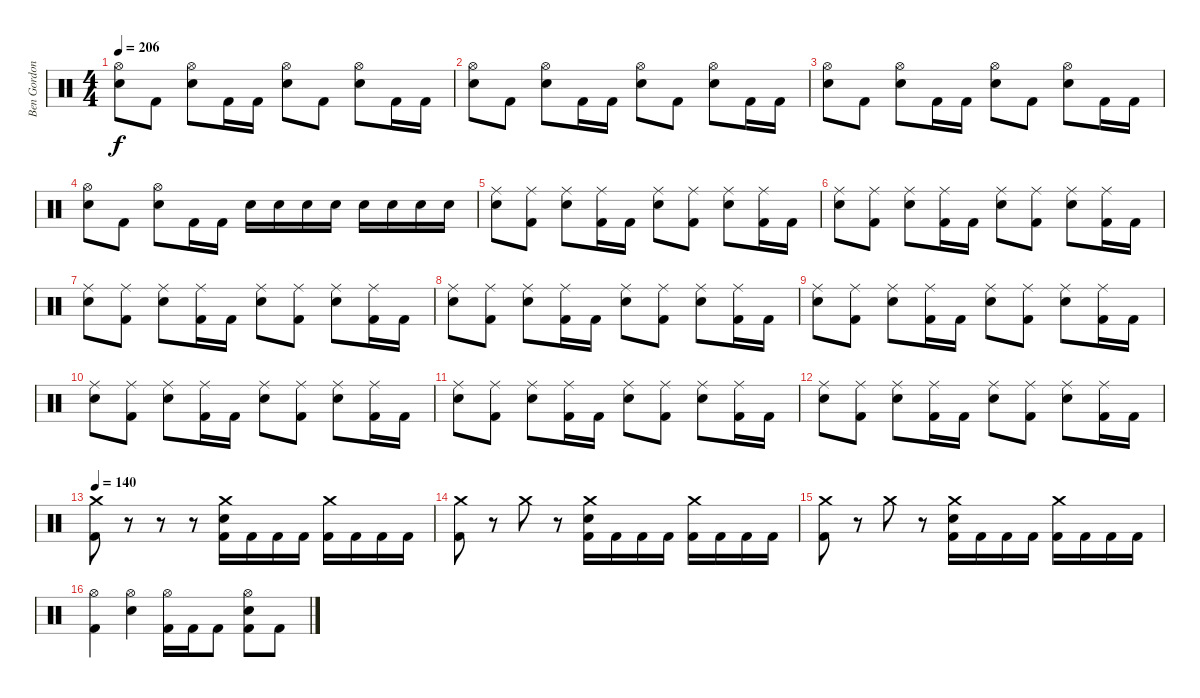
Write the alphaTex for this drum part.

\track ("Ben Gordon" "Ben Gordon") {instrument percussion}
\staff {score}
\articulation defaults
\ts (4 4)
\tempo 206
\clef neutral
\ks c
("Hi-Hat (open)" "Electric Snare (hit)").8{dy f} "Kick (hit) 2".8 ("Hi-Hat (open)" "Electric Snare (hit)").8 "Kick (hit) 2".16 "Kick (hit) 2".16 ("Hi-Hat (open)" "Electric Snare (hit)").8 "Kick (hit) 2".8 ("Hi-Hat (open)" "Electric Snare (hit)").8 "Kick (hit) 2".16 "Kick (hit) 2".16 |
("Hi-Hat (open)" "Electric Snare (hit)").8 "Kick (hit) 2".8 ("Hi-Hat (open)" "Electric Snare (hit)").8 "Kick (hit) 2".16 "Kick (hit) 2".16 ("Hi-Hat (open)" "Electric Snare (hit)").8 "Kick (hit) 2".8 ("Hi-Hat (open)" "Electric Snare (hit)").8 "Kick (hit) 2".16 "Kick (hit) 2".16 |
("Hi-Hat (open)" "Electric Snare (hit)").8 "Kick (hit) 2".8 ("Hi-Hat (open)" "Electric Snare (hit)").8 "Kick (hit) 2".16 "Kick (hit) 2".16 ("Hi-Hat (open)" "Electric Snare (hit)").8 "Kick (hit) 2".8 ("Hi-Hat (open)" "Electric Snare (hit)").8 "Kick (hit) 2".16 "Kick (hit) 2".16 |
("Hi-Hat (open)" "Electric Snare (hit)").8 "Kick (hit) 2".8 ("Hi-Hat (open)" "Electric Snare (hit)").8 "Kick (hit) 2".16 "Kick (hit) 2".16 "Electric Snare (hit)".16 "Electric Snare (hit)".16 "Electric Snare (hit)".16 "Electric Snare (hit)".16 "Electric Snare (hit)".16 "Electric Snare (hit)".16 "Electric Snare (hit)".16 "Electric Snare (hit)".16 |
("Ride (middle)" "Electric Snare (hit)").8 ("Ride (middle)" "Kick (hit) 2").8 ("Ride (middle)" "Electric Snare (hit)").8 ("Ride (middle)" "Kick (hit) 2").16 "Kick (hit) 2".16 ("Ride (middle)" "Electric Snare (hit)").8 ("Ride (middle)" "Kick (hit) 2").8 ("Ride (middle)" "Electric Snare (hit)").8 ("Ride (middle)" "Kick (hit) 2").16 "Kick (hit) 2".16 |
("Ride (middle)" "Electric Snare (hit)").8 ("Ride (middle)" "Kick (hit) 2").8 ("Ride (middle)" "Electric Snare (hit)").8 ("Ride (middle)" "Kick (hit) 2").16 "Kick (hit) 2".16 ("Ride (middle)" "Electric Snare (hit)").8 ("Ride (middle)" "Kick (hit) 2").8 ("Ride (middle)" "Electric Snare (hit)").8 ("Ride (middle)" "Kick (hit) 2").16 "Kick (hit) 2".16 |
("Ride (middle)" "Electric Snare (hit)").8 ("Ride (middle)" "Kick (hit) 2").8 ("Ride (middle)" "Electric Snare (hit)").8 ("Ride (middle)" "Kick (hit) 2").16 "Kick (hit) 2".16 ("Ride (middle)" "Electric Snare (hit)").8 ("Ride (middle)" "Kick (hit) 2").8 ("Ride (middle)" "Electric Snare (hit)").8 ("Ride (middle)" "Kick (hit) 2").16 "Kick (hit) 2".16 |
("Ride (middle)" "Electric Snare (hit)").8 ("Ride (middle)" "Kick (hit) 2").8 ("Ride (middle)" "Electric Snare (hit)").8 ("Ride (middle)" "Kick (hit) 2").16 "Kick (hit) 2".16 ("Ride (middle)" "Electric Snare (hit)").8 ("Ride (middle)" "Kick (hit) 2").8 ("Ride (middle)" "Electric Snare (hit)").8 ("Ride (middle)" "Kick (hit) 2").16 "Kick (hit) 2".16 |
("Ride (middle)" "Electric Snare (hit)").8 ("Ride (middle)" "Kick (hit) 2").8 ("Ride (middle)" "Electric Snare (hit)").8 ("Ride (middle)" "Kick (hit) 2").16 "Kick (hit) 2".16 ("Ride (middle)" "Electric Snare (hit)").8 ("Ride (middle)" "Kick (hit) 2").8 ("Ride (middle)" "Electric Snare (hit)").8 ("Ride (middle)" "Kick (hit) 2").16 "Kick (hit) 2".16 |
("Ride (middle)" "Electric Snare (hit)").8 ("Ride (middle)" "Kick (hit) 2").8 ("Ride (middle)" "Electric Snare (hit)").8 ("Ride (middle)" "Kick (hit) 2").16 "Kick (hit) 2".16 ("Ride (middle)" "Electric Snare (hit)").8 ("Ride (middle)" "Kick (hit) 2").8 ("Ride (middle)" "Electric Snare (hit)").8 ("Ride (middle)" "Kick (hit) 2").16 "Kick (hit) 2".16 |
("Ride (middle)" "Electric Snare (hit)").8 ("Ride (middle)" "Kick (hit) 2").8 ("Ride (middle)" "Electric Snare (hit)").8 ("Ride (middle)" "Kick (hit) 2").16 "Kick (hit) 2".16 ("Ride (middle)" "Electric Snare (hit)").8 ("Ride (middle)" "Kick (hit) 2").8 ("Ride (middle)" "Electric Snare (hit)").8 ("Ride (middle)" "Kick (hit) 2").16 "Kick (hit) 2".16 |
("Ride (middle)" "Electric Snare (hit)").8 ("Ride (middle)" "Kick (hit) 2").8 ("Ride (middle)" "Electric Snare (hit)").8 ("Ride (middle)" "Kick (hit) 2").16 "Kick (hit) 2".16 ("Ride (middle)" "Electric Snare (hit)").8 ("Ride (middle)" "Kick (hit) 2").8 ("Ride (middle)" "Electric Snare (hit)").8 ("Ride (middle)" "Kick (hit) 2").16 "Kick (hit) 2".16 |
\tempo 140
("Crash medium (hit)" "Kick (hit) 2").8 r.8 r.8 r.8 ("Crash medium (hit)" "Electric Snare (hit)" "Kick (hit) 2").16 "Kick (hit) 2".16 "Kick (hit) 2".16 "Kick (hit) 2".16 ("Crash medium (hit)" "Kick (hit) 2").16 "Kick (hit) 2".16 "Kick (hit) 2".16 "Kick (hit) 2".16 |
("Crash medium (hit)" "Kick (hit) 2").8 r.8 "Crash medium (hit)".8 r.8 ("Crash medium (hit)" "Electric Snare (hit)" "Kick (hit) 2").16 "Kick (hit) 2".16 "Kick (hit) 2".16 "Kick (hit) 2".16 ("Crash medium (hit)" "Kick (hit) 2").16 "Kick (hit) 2".16 "Kick (hit) 2".16 "Kick (hit) 2".16 |
("Crash medium (hit)" "Kick (hit) 2").8 r.8 "Crash medium (hit)".8 r.8 ("Crash medium (hit)" "Electric Snare (hit)" "Kick (hit) 2").16 "Kick (hit) 2".16 "Kick (hit) 2".16 "Kick (hit) 2".16 ("Crash medium (hit)" "Kick (hit) 2").16 "Kick (hit) 2".16 "Kick (hit) 2".16 "Kick (hit) 2".16 |
("Hi-Hat (open)" "Kick (hit) 2").4 ("Hi-Hat (open)" "Electric Snare (hit)").4 ("Hi-Hat (open)" "Kick (hit) 2").16 "Kick (hit) 2".16 "Kick (hit) 2".8 ("Hi-Hat (open)" "Electric Snare (hit)" "Kick (hit) 2").8 "Kick (hit) 2".8
